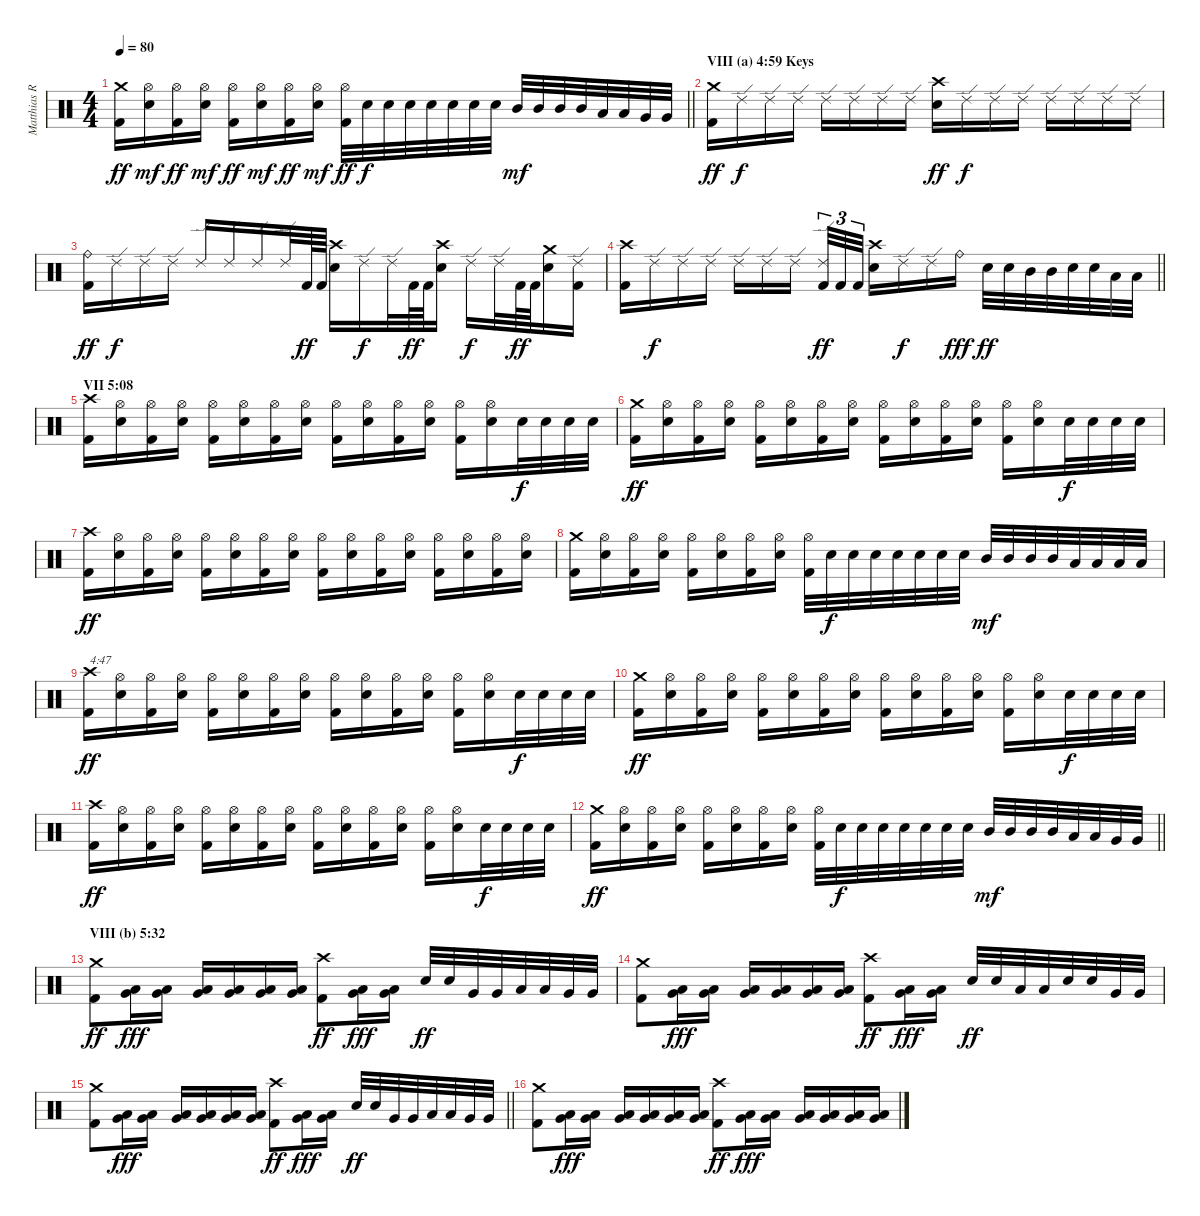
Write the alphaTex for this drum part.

\track ("Matthias R." "Matthias R") {instrument percussion}
\staff {score}
\articulation defaults
\ts (4 4)
\tempo 80
\clef neutral
\barLineRight lightlight
\ks c
("Crash medium (hit)" "Kick (hit) 2").16{dy ff} ("Hi-Hat (open)" "Electric Snare (hit)").16{dy mf} ("Hi-Hat (open)" "Kick (hit) 2").16{dy ff} ("Hi-Hat (open)" "Electric Snare (hit)").16{dy mf} ("Hi-Hat (open)" "Kick (hit) 2").16{dy ff} ("Hi-Hat (open)" "Electric Snare (hit)").16{dy mf} ("Hi-Hat (open)" "Kick (hit) 2").16{dy ff} ("Hi-Hat (open)" "Electric Snare (hit)").16{dy mf} ("Hi-Hat (open)" "Kick (hit) 2").32{dy ff} "Electric Snare (hit)".32{dy f} "Electric Snare (hit)".32 "Electric Snare (hit)".32 "Electric Snare (hit)".32 "Electric Snare (hit)".32 "Electric Snare (hit)".32 "Electric Snare (hit)".32 "Mid Tom (hit)".32{dy mf} "Mid Tom (hit)".32 "Mid Tom (hit)".32 "Mid Tom (hit)".32 "Low Tom (hit)".32 "Low Tom (hit)".32 "Very Low Tom (hit)".32 "Very Low Tom (hit)".32 |
\section ("" "VIII (a) 4:59 Keys")
("Crash medium (hit)" "Kick (hit) 2").16{dy ff} "Ride (edge) 2".16{dy f} "Ride (edge) 2".16 "Ride (edge) 2".16 "Ride (edge) 2".16 "Ride (edge) 2".16 "Ride (edge) 2".16 "Ride (edge) 2".16 ("Crash high (hit)" "Electric Snare (hit)").16{dy ff} "Ride (edge) 2".16{dy f} "Ride (edge) 2".16 "Ride (edge) 2".16 "Ride (edge) 2".16 "Ride (edge) 2".16 "Ride (edge) 2".16 "Ride (edge) 2".16 |
("Ride (bell)" "Kick (hit) 2").16{dy ff} "Ride (edge) 2".16{dy f} "Ride (edge) 2".16 "Ride (edge) 2".16 "Ride (edge) 2".16 "Ride (edge) 2".16 "Ride (edge) 2".16 "Ride (edge) 2".32 "Kick (hit) 2".64{dy ff} "Kick (hit) 2".64 ("Crash high (hit)" "Electric Snare (hit)").16 "Ride (edge) 2".16{dy f} "Ride (edge) 2".32 "Kick (hit) 2".64{dy ff} "Kick (hit) 2".64 ("Crash high (hit)" "Electric Snare (hit)").16 "Ride (edge) 2".16{dy f} "Ride (edge) 2".32 "Kick (hit) 2".64{dy ff} "Kick (hit) 2".64 ("Crash medium (hit)" "Electric Snare (hit)").16 ("Ride (edge) 2" "Kick (hit) 2").16 |
\barLineRight lightlight
("Crash high (hit)" "Kick (hit) 2").16 "Ride (edge) 2".16{dy f} "Ride (edge) 2".16 "Ride (edge) 2".16 "Ride (edge) 2".16 "Ride (edge) 2".16 "Ride (edge) 2".16{beam splitsecondary} ("Ride (edge) 2" "Kick (hit) 2").32{tu (3 2) dy ff} "Kick (hit) 2".32{tu (3 2)} "Kick (hit) 2".32{tu (3 2)} ("Crash high (hit)" "Electric Snare (hit)").16 "Ride (edge) 2".16{dy f} "Ride (edge) 2".16 "Ride (bell)".16{dy fff} "Electric Snare (hit)".32{dy ff} "Electric Snare (hit)".32 "Mid Tom (hit)".32 "Mid Tom (hit)".32 "Electric Snare (hit)".32 "Electric Snare (hit)".32 "Low Tom (hit)".32 "Low Tom (hit)".32 |
\section ("" "VII 5:08")
("Crash high (hit)" "Kick (hit) 2").16 ("Hi-Hat (open)" "Electric Snare (hit)").16 ("Hi-Hat (open)" "Kick (hit) 2").16 ("Hi-Hat (open)" "Electric Snare (hit)").16 ("Hi-Hat (open)" "Kick (hit) 2").16 ("Hi-Hat (open)" "Electric Snare (hit)").16 ("Hi-Hat (open)" "Kick (hit) 2").16 ("Hi-Hat (open)" "Electric Snare (hit)").16 ("Hi-Hat (open)" "Kick (hit) 2").16 ("Hi-Hat (open)" "Electric Snare (hit)").16 ("Hi-Hat (open)" "Kick (hit) 2").16 ("Hi-Hat (open)" "Electric Snare (hit)").16 ("Hi-Hat (open)" "Kick (hit) 2").16 ("Hi-Hat (open)" "Electric Snare (hit)").16 "Electric Snare (hit)".32{dy f} "Electric Snare (hit)".32 "Electric Snare (hit)".32 "Electric Snare (hit)".32 |
("Crash medium (hit)" "Kick (hit) 2").16{dy ff} ("Hi-Hat (open)" "Electric Snare (hit)").16 ("Hi-Hat (open)" "Kick (hit) 2").16 ("Hi-Hat (open)" "Electric Snare (hit)").16 ("Hi-Hat (open)" "Kick (hit) 2").16 ("Hi-Hat (open)" "Electric Snare (hit)").16 ("Hi-Hat (open)" "Kick (hit) 2").16 ("Hi-Hat (open)" "Electric Snare (hit)").16 ("Hi-Hat (open)" "Kick (hit) 2").16 ("Hi-Hat (open)" "Electric Snare (hit)").16 ("Hi-Hat (open)" "Kick (hit) 2").16 ("Hi-Hat (open)" "Electric Snare (hit)").16 ("Hi-Hat (open)" "Kick (hit) 2").16 ("Hi-Hat (open)" "Electric Snare (hit)").16 "Electric Snare (hit)".32{dy f} "Electric Snare (hit)".32 "Electric Snare (hit)".32 "Electric Snare (hit)".32 |
("Crash high (hit)" "Kick (hit) 2").16{dy ff} ("Hi-Hat (open)" "Electric Snare (hit)").16 ("Hi-Hat (open)" "Kick (hit) 2").16 ("Hi-Hat (open)" "Electric Snare (hit)").16 ("Hi-Hat (open)" "Kick (hit) 2").16 ("Hi-Hat (open)" "Electric Snare (hit)").16 ("Hi-Hat (open)" "Kick (hit) 2").16 ("Hi-Hat (open)" "Electric Snare (hit)").16 ("Hi-Hat (open)" "Kick (hit) 2").16 ("Hi-Hat (open)" "Electric Snare (hit)").16 ("Hi-Hat (open)" "Kick (hit) 2").16 ("Hi-Hat (open)" "Electric Snare (hit)").16 ("Hi-Hat (open)" "Kick (hit) 2").16 ("Hi-Hat (open)" "Electric Snare (hit)").16 ("Hi-Hat (open)" "Kick (hit) 2").16 ("Hi-Hat (open)" "Electric Snare (hit)").16 |
("Crash medium (hit)" "Kick (hit) 2").16 ("Hi-Hat (open)" "Electric Snare (hit)").16 ("Hi-Hat (open)" "Kick (hit) 2").16 ("Hi-Hat (open)" "Electric Snare (hit)").16 ("Hi-Hat (open)" "Kick (hit) 2").16 ("Hi-Hat (open)" "Electric Snare (hit)").16 ("Hi-Hat (open)" "Kick (hit) 2").16 ("Hi-Hat (open)" "Electric Snare (hit)").16 ("Hi-Hat (open)" "Kick (hit) 2").32 "Electric Snare (hit)".32{dy f} "Electric Snare (hit)".32 "Electric Snare (hit)".32 "Electric Snare (hit)".32 "Electric Snare (hit)".32 "Electric Snare (hit)".32 "Electric Snare (hit)".32 "Mid Tom (hit)".32{dy mf} "Mid Tom (hit)".32 "Mid Tom (hit)".32 "Mid Tom (hit)".32 "Low Tom (hit)".32 "Low Tom (hit)".32 "Low Tom (hit)".32 "Low Tom (hit)".32 |
("Crash high (hit)" "Kick (hit) 2").16{txt "4:47" dy ff} ("Hi-Hat (open)" "Electric Snare (hit)").16 ("Hi-Hat (open)" "Kick (hit) 2").16 ("Hi-Hat (open)" "Electric Snare (hit)").16 ("Hi-Hat (open)" "Kick (hit) 2").16 ("Hi-Hat (open)" "Electric Snare (hit)").16 ("Hi-Hat (open)" "Kick (hit) 2").16 ("Hi-Hat (open)" "Electric Snare (hit)").16 ("Hi-Hat (open)" "Kick (hit) 2").16 ("Hi-Hat (open)" "Electric Snare (hit)").16 ("Hi-Hat (open)" "Kick (hit) 2").16 ("Hi-Hat (open)" "Electric Snare (hit)").16 ("Hi-Hat (open)" "Kick (hit) 2").16 ("Hi-Hat (open)" "Electric Snare (hit)").16 "Electric Snare (hit)".32{dy f} "Electric Snare (hit)".32 "Electric Snare (hit)".32 "Electric Snare (hit)".32 |
("Crash medium (hit)" "Kick (hit) 2").16{dy ff} ("Hi-Hat (open)" "Electric Snare (hit)").16 ("Hi-Hat (open)" "Kick (hit) 2").16 ("Hi-Hat (open)" "Electric Snare (hit)").16 ("Hi-Hat (open)" "Kick (hit) 2").16 ("Hi-Hat (open)" "Electric Snare (hit)").16 ("Hi-Hat (open)" "Kick (hit) 2").16 ("Hi-Hat (open)" "Electric Snare (hit)").16 ("Hi-Hat (open)" "Kick (hit) 2").16 ("Hi-Hat (open)" "Electric Snare (hit)").16 ("Hi-Hat (open)" "Kick (hit) 2").16 ("Hi-Hat (open)" "Electric Snare (hit)").16 ("Hi-Hat (open)" "Kick (hit) 2").16 ("Hi-Hat (open)" "Electric Snare (hit)").16 "Electric Snare (hit)".32{dy f} "Electric Snare (hit)".32 "Electric Snare (hit)".32 "Electric Snare (hit)".32 |
("Crash high (hit)" "Kick (hit) 2").16{dy ff} ("Hi-Hat (open)" "Electric Snare (hit)").16 ("Hi-Hat (open)" "Kick (hit) 2").16 ("Hi-Hat (open)" "Electric Snare (hit)").16 ("Hi-Hat (open)" "Kick (hit) 2").16 ("Hi-Hat (open)" "Electric Snare (hit)").16 ("Hi-Hat (open)" "Kick (hit) 2").16 ("Hi-Hat (open)" "Electric Snare (hit)").16 ("Hi-Hat (open)" "Kick (hit) 2").16 ("Hi-Hat (open)" "Electric Snare (hit)").16 ("Hi-Hat (open)" "Kick (hit) 2").16 ("Hi-Hat (open)" "Electric Snare (hit)").16 ("Hi-Hat (open)" "Kick (hit) 2").16 ("Hi-Hat (open)" "Electric Snare (hit)").16 "Electric Snare (hit)".32{dy f} "Electric Snare (hit)".32 "Electric Snare (hit)".32 "Electric Snare (hit)".32 |
\barLineRight lightlight
("Crash medium (hit)" "Kick (hit) 2").16{dy ff} ("Hi-Hat (open)" "Electric Snare (hit)").16 ("Hi-Hat (open)" "Kick (hit) 2").16 ("Hi-Hat (open)" "Electric Snare (hit)").16 ("Hi-Hat (open)" "Kick (hit) 2").16 ("Hi-Hat (open)" "Electric Snare (hit)").16 ("Hi-Hat (open)" "Kick (hit) 2").16 ("Hi-Hat (open)" "Electric Snare (hit)").16 ("Hi-Hat (open)" "Kick (hit) 2").32 "Electric Snare (hit)".32{dy f} "Electric Snare (hit)".32 "Electric Snare (hit)".32 "Electric Snare (hit)".32 "Electric Snare (hit)".32 "Electric Snare (hit)".32 "Electric Snare (hit)".32 "Mid Tom (hit)".32{dy mf} "Mid Tom (hit)".32 "Mid Tom (hit)".32 "Mid Tom (hit)".32 "Low Tom (hit)".32 "Low Tom (hit)".32 "Very Low Tom (hit)".32 "Very Low Tom (hit)".32 |
\section ("" "VIII (b) 5:32")
("Crash medium (hit)" "Kick (hit) 2").8{dy ff} ("Low Tom (hit)" "Very Low Tom (hit)").16{dy fff} ("Low Tom (hit)" "Very Low Tom (hit)").16 ("Low Tom (hit)" "Very Low Tom (hit)").16 ("Low Tom (hit)" "Very Low Tom (hit)").16 ("Low Tom (hit)" "Very Low Tom (hit)").16 ("Low Tom (hit)" "Very Low Tom (hit)").16 ("Crash high (hit)" "Kick (hit) 2").8{dy ff} ("Low Tom (hit)" "Very Low Tom (hit)").16{dy fff} ("Low Tom (hit)" "Very Low Tom (hit)").16 "Electric Snare (hit)".32{dy ff} "Electric Snare (hit)".32 "Very Low Tom (hit)".32 "Very Low Tom (hit)".32 "Low Tom (hit)".32 "Low Tom (hit)".32 "Very Low Tom (hit)".32 "Very Low Tom (hit)".32 |
("Crash medium (hit)" "Kick (hit) 2").8 ("Low Tom (hit)" "Very Low Tom (hit)").16{dy fff} ("Low Tom (hit)" "Very Low Tom (hit)").16 ("Low Tom (hit)" "Very Low Tom (hit)").16 ("Low Tom (hit)" "Very Low Tom (hit)").16 ("Low Tom (hit)" "Very Low Tom (hit)").16 ("Low Tom (hit)" "Very Low Tom (hit)").16 ("Crash high (hit)" "Kick (hit) 2").8{dy ff} ("Low Tom (hit)" "Very Low Tom (hit)").16{dy fff} ("Low Tom (hit)" "Very Low Tom (hit)").16 "Electric Snare (hit)".32{dy ff} "Electric Snare (hit)".32 "Low Tom (hit)".32 "Low Tom (hit)".32 "Electric Snare (hit)".32 "Electric Snare (hit)".32 "Very Low Tom (hit)".32 "Very Low Tom (hit)".32 |
\barLineRight lightlight
("Crash medium (hit)" "Kick (hit) 2").8 ("Low Tom (hit)" "Very Low Tom (hit)").16{dy fff} ("Low Tom (hit)" "Very Low Tom (hit)").16 ("Low Tom (hit)" "Very Low Tom (hit)").16 ("Low Tom (hit)" "Very Low Tom (hit)").16 ("Low Tom (hit)" "Very Low Tom (hit)").16 ("Low Tom (hit)" "Very Low Tom (hit)").16 ("Crash high (hit)" "Kick (hit) 2").8{dy ff} ("Low Tom (hit)" "Very Low Tom (hit)").16{dy fff} ("Low Tom (hit)" "Very Low Tom (hit)").16 "Electric Snare (hit)".32{dy ff} "Electric Snare (hit)".32 "Very Low Tom (hit)".32 "Very Low Tom (hit)".32 "Low Tom (hit)".32 "Low Tom (hit)".32 "Very Low Tom (hit)".32 "Very Low Tom (hit)".32 |
("Crash medium (hit)" "Kick (hit) 2").8 ("Low Tom (hit)" "Very Low Tom (hit)").16{dy fff} ("Low Tom (hit)" "Very Low Tom (hit)").16 ("Low Tom (hit)" "Very Low Tom (hit)").16 ("Low Tom (hit)" "Very Low Tom (hit)").16 ("Low Tom (hit)" "Very Low Tom (hit)").16 ("Low Tom (hit)" "Very Low Tom (hit)").16 ("Crash high (hit)" "Kick (hit) 2").8{dy ff} ("Low Tom (hit)" "Very Low Tom (hit)").16{dy fff} ("Low Tom (hit)" "Very Low Tom (hit)").16 ("Low Tom (hit)" "Very Low Tom (hit)").16 ("Low Tom (hit)" "Very Low Tom (hit)").16 ("Low Tom (hit)" "Very Low Tom (hit)").16 ("Low Tom (hit)" "Very Low Tom (hit)").16
